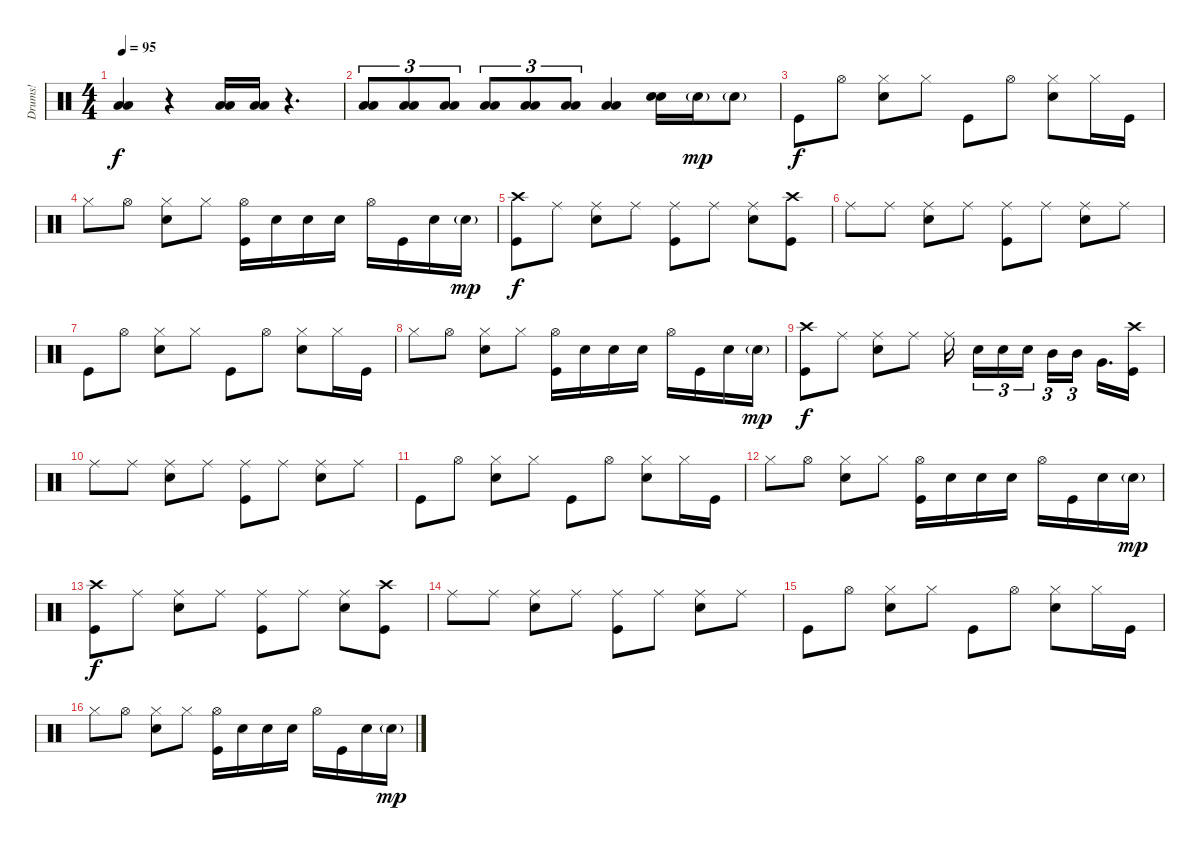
\track ("Drums!" "Drums!") {instrument percussion}
\staff {score}
\articulation defaults
\ts (4 4)
\tempo 95
\clef neutral
\ks c
("Low Tom (hit)" "Low Floor Tom (hit)").4{dy f} r.4 ("Low Tom (hit)" "Low Floor Tom (hit)").16 ("Low Tom (hit)" "Low Floor Tom (hit)").16 r.4{d} |
("Low Tom (hit)" "Low Floor Tom (hit)").8{tu (3 2)} ("Low Tom (hit)" "Low Floor Tom (hit)").8{tu (3 2)} ("Low Tom (hit)" "Low Floor Tom (hit)").8{tu (3 2)} ("Low Tom (hit)" "Low Floor Tom (hit)").8{tu (3 2)} ("Low Tom (hit)" "Low Floor Tom (hit)").8{tu (3 2)} ("Low Tom (hit)" "Low Floor Tom (hit)").8{tu (3 2)} ("Low Tom (hit)" "Low Floor Tom (hit)").4 ("Electric Snare (hit)" "Electric Snare (hit)").16 "Electric Snare (hit)"{g}.16{dy mp} "Electric Snare (hit)"{g}.8 |
"Kick (hit)".8{dy f} "Hi-Hat (open)".8 ("Hi-Hat (closed)" "Electric Snare (hit)").8 "Hi-Hat (closed)".8 "Kick (hit)".8 "Hi-Hat (open)".8 ("Hi-Hat (closed)" "Electric Snare (hit)").8 "Hi-Hat (closed)".16 "Kick (hit)".16 |
"Hi-Hat (closed)".8 "Hi-Hat (open)".8 ("Hi-Hat (closed)" "Electric Snare (hit)").8 "Hi-Hat (closed)".8 ("Hi-Hat (open)" "Kick (hit)").16 "Electric Snare (hit)".16 "Electric Snare (hit)".16 "Electric Snare (hit)".16 "Hi-Hat (open)".16 "Kick (hit)".16 "Electric Snare (hit)".16 "Electric Snare (hit)"{g}.16{dy mp} |
("Crash high (hit)" "Kick (hit)").8{dy f} "Ride (middle)".8 ("Ride (middle)" "Electric Snare (hit)").8 "Ride (middle)".8 ("Ride (middle)" "Kick (hit)").8 "Ride (middle)".8 ("Ride (middle)" "Electric Snare (hit)").8 ("Crash high (hit)" "Kick (hit)").8 |
"Ride (middle)".8 "Ride (middle)".8 ("Ride (middle)" "Electric Snare (hit)").8 "Ride (middle)".8 ("Ride (middle)" "Kick (hit)").8 "Ride (middle)".8 ("Ride (middle)" "Electric Snare (hit)").8 "Ride (middle)".8 |
"Kick (hit)".8 "Hi-Hat (open)".8 ("Hi-Hat (closed)" "Electric Snare (hit)").8 "Hi-Hat (closed)".8 "Kick (hit)".8 "Hi-Hat (open)".8 ("Hi-Hat (closed)" "Electric Snare (hit)").8 "Hi-Hat (closed)".16 "Kick (hit)".16 |
"Hi-Hat (closed)".8 "Hi-Hat (open)".8 ("Hi-Hat (closed)" "Electric Snare (hit)").8 "Hi-Hat (closed)".8 ("Hi-Hat (open)" "Kick (hit)").16 "Electric Snare (hit)".16 "Electric Snare (hit)".16 "Electric Snare (hit)".16 "Hi-Hat (open)".16 "Kick (hit)".16 "Electric Snare (hit)".16 "Electric Snare (hit)"{g}.16{dy mp} |
("Crash high (hit)" "Kick (hit)").8{dy f} "Ride (middle)".8 ("Ride (middle)" "Electric Snare (hit)").8 "Ride (middle)".8 "Ride (middle)".16{beam splitsecondary} "Electric Snare (hit)".16{tu (3 2)} "Electric Snare (hit)".16{tu (3 2)} "Electric Snare (hit)".16{tu (3 2) beam splitsecondary} "Mid Tom (hit)".16{tu (3 2)} "Mid Tom (hit)".16{tu (3 2)} "Very Low Tom (hit)".16{d} ("Crash high (hit)" "Kick (hit)").16 |
"Ride (middle)".8 "Ride (middle)".8 ("Ride (middle)" "Electric Snare (hit)").8 "Ride (middle)".8 ("Ride (middle)" "Kick (hit)").8 "Ride (middle)".8 ("Ride (middle)" "Electric Snare (hit)").8 "Ride (middle)".8 |
"Kick (hit)".8 "Hi-Hat (open)".8 ("Hi-Hat (closed)" "Electric Snare (hit)").8 "Hi-Hat (closed)".8 "Kick (hit)".8 "Hi-Hat (open)".8 ("Hi-Hat (closed)" "Electric Snare (hit)").8 "Hi-Hat (closed)".16 "Kick (hit)".16 |
"Hi-Hat (closed)".8 "Hi-Hat (open)".8 ("Hi-Hat (closed)" "Electric Snare (hit)").8 "Hi-Hat (closed)".8 ("Hi-Hat (open)" "Kick (hit)").16 "Electric Snare (hit)".16 "Electric Snare (hit)".16 "Electric Snare (hit)".16 "Hi-Hat (open)".16 "Kick (hit)".16 "Electric Snare (hit)".16 "Electric Snare (hit)"{g}.16{dy mp} |
("Crash high (hit)" "Kick (hit)").8{dy f} "Ride (middle)".8 ("Ride (middle)" "Electric Snare (hit)").8 "Ride (middle)".8 ("Ride (middle)" "Kick (hit)").8 "Ride (middle)".8 ("Ride (middle)" "Electric Snare (hit)").8 ("Crash high (hit)" "Kick (hit)").8 |
"Ride (middle)".8 "Ride (middle)".8 ("Ride (middle)" "Electric Snare (hit)").8 "Ride (middle)".8 ("Ride (middle)" "Kick (hit)").8 "Ride (middle)".8 ("Ride (middle)" "Electric Snare (hit)").8 "Ride (middle)".8 |
"Kick (hit)".8 "Hi-Hat (open)".8 ("Hi-Hat (closed)" "Electric Snare (hit)").8 "Hi-Hat (closed)".8 "Kick (hit)".8 "Hi-Hat (open)".8 ("Hi-Hat (closed)" "Electric Snare (hit)").8 "Hi-Hat (closed)".16 "Kick (hit)".16 |
"Hi-Hat (closed)".8 "Hi-Hat (open)".8 ("Hi-Hat (closed)" "Electric Snare (hit)").8 "Hi-Hat (closed)".8 ("Hi-Hat (open)" "Kick (hit)").16 "Electric Snare (hit)".16 "Electric Snare (hit)".16 "Electric Snare (hit)".16 "Hi-Hat (open)".16 "Kick (hit)".16 "Electric Snare (hit)".16 "Electric Snare (hit)"{g}.16{dy mp}
